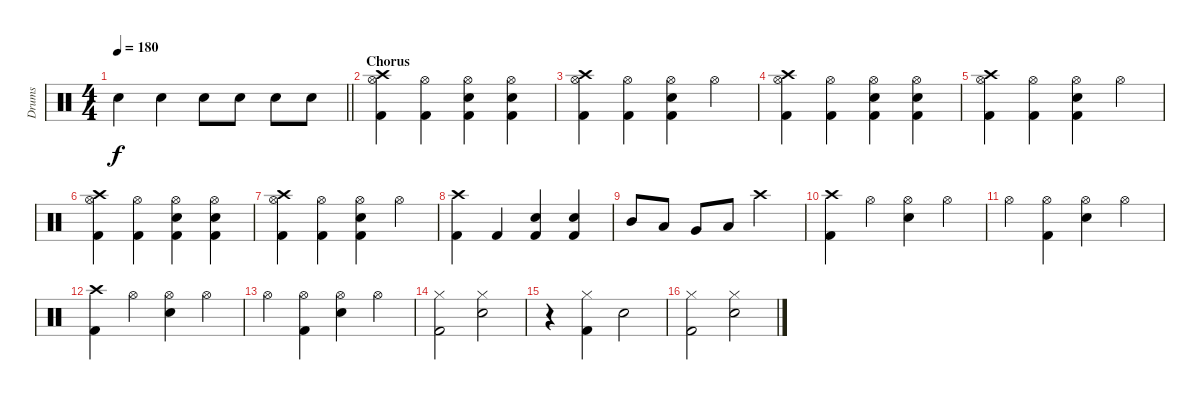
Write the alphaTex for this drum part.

\track ("Drums" "Drums") {instrument percussion}
\staff {score}
\articulation defaults
\ts (4 4)
\tempo 180
\clef neutral
\barLineRight lightlight
\ks c "Electric Snare (hit)".4{dy f} "Electric Snare (hit)".4 "Electric Snare (hit)".8 "Electric Snare (hit)".8 "Electric Snare (hit)".8 "Electric Snare (hit)".8
|
\section ("" "Chorus")
("Kick (hit) 2" "Crash high (hit)" "Hi-Hat (open)").4 ("Kick (hit) 2" "Hi-Hat (open)").4 ("Electric Snare (hit)" "Kick (hit) 2" "Hi-Hat (open)").4 ("Electric Snare (hit)" "Kick (hit) 2" "Hi-Hat (open)").4 |
("Kick (hit) 2" "Crash high (hit)" "Hi-Hat (open)").4 ("Kick (hit) 2" "Hi-Hat (open)").4 ("Electric Snare (hit)" "Kick (hit) 2" "Hi-Hat (open)").4 "Hi-Hat (open)".4 |
("Kick (hit) 2" "Crash high (hit)" "Hi-Hat (open)").4 ("Kick (hit) 2" "Hi-Hat (open)").4 ("Electric Snare (hit)" "Kick (hit) 2" "Hi-Hat (open)").4 ("Electric Snare (hit)" "Kick (hit) 2" "Hi-Hat (open)").4 |
("Kick (hit) 2" "Crash high (hit)" "Hi-Hat (open)").4 ("Kick (hit) 2" "Hi-Hat (open)").4 ("Electric Snare (hit)" "Kick (hit) 2" "Hi-Hat (open)").4 "Hi-Hat (open)".4 |
("Kick (hit) 2" "Crash high (hit)" "Hi-Hat (open)").4 ("Kick (hit) 2" "Hi-Hat (open)").4 ("Electric Snare (hit)" "Kick (hit) 2" "Hi-Hat (open)").4 ("Electric Snare (hit)" "Kick (hit) 2" "Hi-Hat (open)").4 |
("Kick (hit) 2" "Crash high (hit)" "Hi-Hat (open)").4 ("Kick (hit) 2" "Hi-Hat (open)").4 ("Electric Snare (hit)" "Kick (hit) 2" "Hi-Hat (open)").4 "Hi-Hat (open)".4 |
("Kick (hit) 2" "Crash high (hit)").4 "Kick (hit) 2".4 ("Electric Snare (hit)" "Kick (hit) 2").4 ("Electric Snare (hit)" "Kick (hit) 2").4 |
"Mid Tom (hit)".8 "Low Tom (hit)".8 "Very Low Tom (hit)".8 "Low Floor Tom (hit)".8 "Crash high (hit)".2 |
("Kick (hit) 2" "Crash high (hit)").4 "Hi-Hat (open)".4 ("Hi-Hat (open)" "Electric Snare (hit)").4 "Hi-Hat (open)".4 |
"Hi-Hat (open)".4 ("Hi-Hat (open)" "Kick (hit) 2").4 ("Hi-Hat (open)" "Electric Snare (hit)").4 "Hi-Hat (open)".4 |
("Kick (hit) 2" "Crash high (hit)").4 "Hi-Hat (open)".4 ("Hi-Hat (open)" "Electric Snare (hit)").4 "Hi-Hat (open)".4 |
"Hi-Hat (open)".4 ("Hi-Hat (open)" "Kick (hit) 2").4 ("Hi-Hat (open)" "Electric Snare (hit)").4 "Hi-Hat (open)".4 |
("Hi-Hat (closed)" "Kick (hit) 2").2 ("Hi-Hat (closed)" "Electric Snare (hit)").2 |
r.4 ("Kick (hit) 2" "Hi-Hat (closed)").4 "Electric Snare (hit)".2 |
("Hi-Hat (closed)" "Kick (hit) 2").2 ("Hi-Hat (closed)" "Electric Snare (hit)").2
